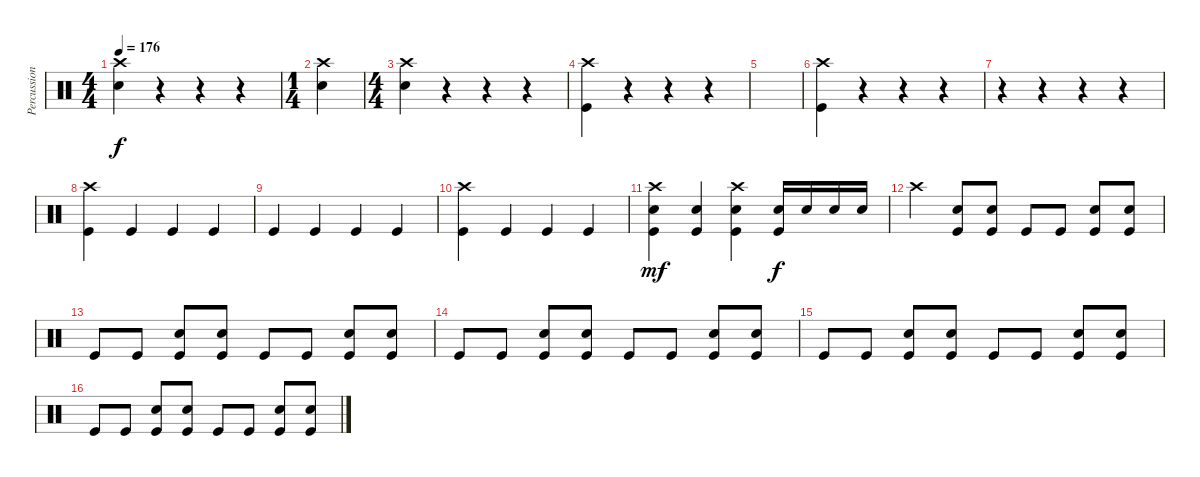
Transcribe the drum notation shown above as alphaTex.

\track ("Percussion" "Percussion") {instrument percussion}
\staff {score}
\articulation defaults
\ts (4 4)
\tempo 176
\clef neutral
\ks c
("Crash high (hit)" "Snare (hit) 2").4{dy f} r.4 r.4 r.4 |
\ts (1 4)
("Crash high (hit)" "Snare (hit) 2").4 |
\ts (4 4)
("Crash high (hit)" "Snare (hit) 2").4 r.4 r.4 r.4 |
("Crash high (hit)" "Kick (hit)").4 r.4 r.4 r.4 |
|
("Crash high (hit)" "Kick (hit)").4 r.4 r.4 r.4 |
r.4 r.4 r.4 r.4 |
("Crash high (hit)" "Kick (hit)").4 "Kick (hit)".4 "Kick (hit)".4 "Kick (hit)".4 |
"Kick (hit)".4 "Kick (hit)".4 "Kick (hit)".4 "Kick (hit)".4 |
("Crash high (hit)" "Kick (hit)").4 "Kick (hit)".4 "Kick (hit)".4 "Kick (hit)".4 |
("Crash high (hit)" "Kick (hit)" "Snare (hit) 2").4{dy mf} ("Kick (hit)" "Snare (hit) 2").4 ("Crash high (hit)" "Kick (hit)" "Snare (hit) 2").4 ("Snare (hit) 2" "Kick (hit)").16{dy f} "Snare (hit) 2".16 "Snare (hit) 2".16 "Snare (hit) 2".16 |
"Crash high (hit)".4 ("Kick (hit)" "Snare (hit) 2").8 ("Kick (hit)" "Snare (hit) 2").8 "Kick (hit)".8 "Kick (hit)".8 ("Kick (hit)" "Snare (hit) 2").8 ("Kick (hit)" "Snare (hit) 2").8 |
"Kick (hit)".8 "Kick (hit)".8 ("Kick (hit)" "Snare (hit) 2").8 ("Kick (hit)" "Snare (hit) 2").8 "Kick (hit)".8 "Kick (hit)".8 ("Kick (hit)" "Snare (hit) 2").8 ("Kick (hit)" "Snare (hit) 2").8 |
"Kick (hit)".8 "Kick (hit)".8 ("Kick (hit)" "Snare (hit) 2").8 ("Kick (hit)" "Snare (hit) 2").8 "Kick (hit)".8 "Kick (hit)".8 ("Kick (hit)" "Snare (hit) 2").8 ("Kick (hit)" "Snare (hit) 2").8 |
"Kick (hit)".8 "Kick (hit)".8 ("Kick (hit)" "Snare (hit) 2").8 ("Kick (hit)" "Snare (hit) 2").8 "Kick (hit)".8 "Kick (hit)".8 ("Kick (hit)" "Snare (hit) 2").8 ("Kick (hit)" "Snare (hit) 2").8 |
"Kick (hit)".8 "Kick (hit)".8 ("Kick (hit)" "Snare (hit) 2").8 ("Kick (hit)" "Snare (hit) 2").8 "Kick (hit)".8 "Kick (hit)".8 ("Kick (hit)" "Snare (hit) 2").8 ("Kick (hit)" "Snare (hit) 2").8
